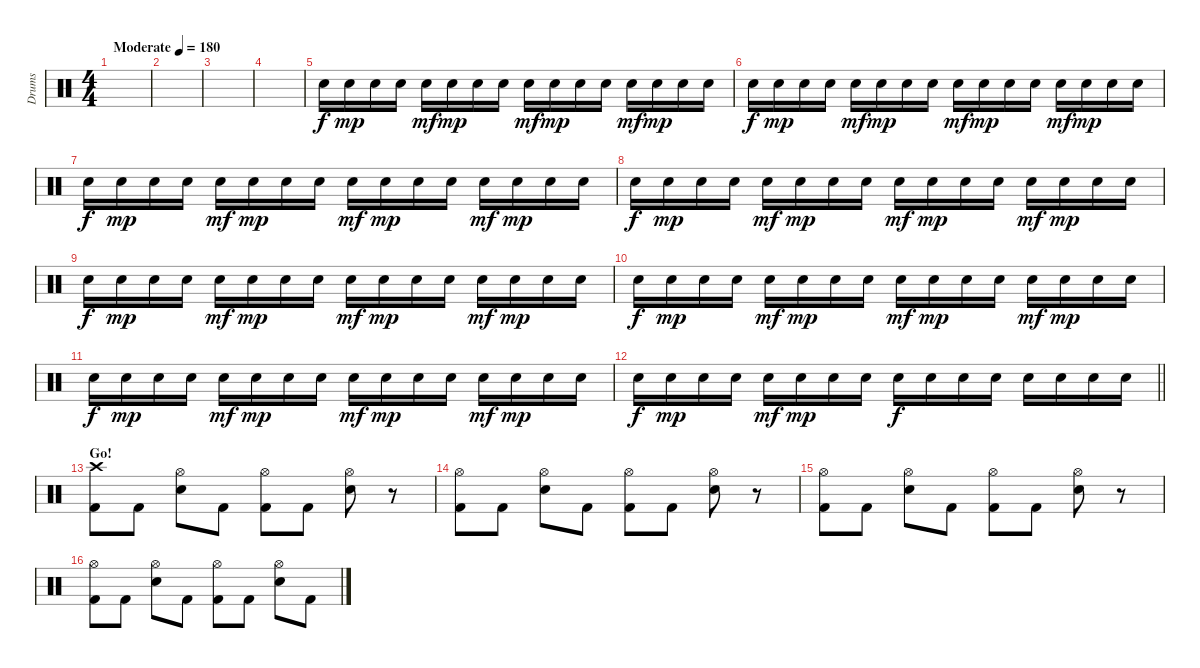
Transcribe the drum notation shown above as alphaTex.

\track ("Drums" "Drums") {instrument percussion}
\staff {score}
\articulation defaults
\ts (4 4)
\tempo (180 "Moderate")
\clef neutral
\ks c
|
|
|
|
"Electric Snare (hit)".16{volume 13} "Electric Snare (hit)".16{dy mp} "Electric Snare (hit)".16 "Electric Snare (hit)".16 "Electric Snare (hit)".16{dy mf} "Electric Snare (hit)".16{dy mp} "Electric Snare (hit)".16 "Electric Snare (hit)".16 "Electric Snare (hit)".16{dy mf} "Electric Snare (hit)".16{dy mp} "Electric Snare (hit)".16 "Electric Snare (hit)".16 "Electric Snare (hit)".16{dy mf} "Electric Snare (hit)".16{dy mp} "Electric Snare (hit)".16 "Electric Snare (hit)".16 |
"Electric Snare (hit)".16{dy f} "Electric Snare (hit)".16{dy mp} "Electric Snare (hit)".16 "Electric Snare (hit)".16 "Electric Snare (hit)".16{dy mf} "Electric Snare (hit)".16{dy mp} "Electric Snare (hit)".16 "Electric Snare (hit)".16 "Electric Snare (hit)".16{dy mf} "Electric Snare (hit)".16{dy mp} "Electric Snare (hit)".16 "Electric Snare (hit)".16 "Electric Snare (hit)".16{dy mf} "Electric Snare (hit)".16{dy mp} "Electric Snare (hit)".16 "Electric Snare (hit)".16 |
"Electric Snare (hit)".16{dy f} "Electric Snare (hit)".16{dy mp} "Electric Snare (hit)".16 "Electric Snare (hit)".16 "Electric Snare (hit)".16{dy mf} "Electric Snare (hit)".16{dy mp} "Electric Snare (hit)".16 "Electric Snare (hit)".16 "Electric Snare (hit)".16{dy mf} "Electric Snare (hit)".16{dy mp} "Electric Snare (hit)".16 "Electric Snare (hit)".16 "Electric Snare (hit)".16{dy mf} "Electric Snare (hit)".16{dy mp} "Electric Snare (hit)".16 "Electric Snare (hit)".16 |
"Electric Snare (hit)".16{dy f} "Electric Snare (hit)".16{dy mp} "Electric Snare (hit)".16 "Electric Snare (hit)".16 "Electric Snare (hit)".16{dy mf} "Electric Snare (hit)".16{dy mp} "Electric Snare (hit)".16 "Electric Snare (hit)".16 "Electric Snare (hit)".16{dy mf} "Electric Snare (hit)".16{dy mp} "Electric Snare (hit)".16 "Electric Snare (hit)".16 "Electric Snare (hit)".16{dy mf} "Electric Snare (hit)".16{dy mp} "Electric Snare (hit)".16 "Electric Snare (hit)".16 |
"Electric Snare (hit)".16{dy f volume 16} "Electric Snare (hit)".16{dy mp} "Electric Snare (hit)".16 "Electric Snare (hit)".16 "Electric Snare (hit)".16{dy mf} "Electric Snare (hit)".16{dy mp} "Electric Snare (hit)".16 "Electric Snare (hit)".16 "Electric Snare (hit)".16{dy mf} "Electric Snare (hit)".16{dy mp} "Electric Snare (hit)".16 "Electric Snare (hit)".16 "Electric Snare (hit)".16{dy mf} "Electric Snare (hit)".16{dy mp} "Electric Snare (hit)".16 "Electric Snare (hit)".16 |
"Electric Snare (hit)".16{dy f} "Electric Snare (hit)".16{dy mp} "Electric Snare (hit)".16 "Electric Snare (hit)".16 "Electric Snare (hit)".16{dy mf} "Electric Snare (hit)".16{dy mp} "Electric Snare (hit)".16 "Electric Snare (hit)".16 "Electric Snare (hit)".16{dy mf} "Electric Snare (hit)".16{dy mp} "Electric Snare (hit)".16 "Electric Snare (hit)".16 "Electric Snare (hit)".16{dy mf} "Electric Snare (hit)".16{dy mp} "Electric Snare (hit)".16 "Electric Snare (hit)".16 |
"Electric Snare (hit)".16{dy f} "Electric Snare (hit)".16{dy mp} "Electric Snare (hit)".16 "Electric Snare (hit)".16 "Electric Snare (hit)".16{dy mf} "Electric Snare (hit)".16{dy mp} "Electric Snare (hit)".16 "Electric Snare (hit)".16 "Electric Snare (hit)".16{dy mf} "Electric Snare (hit)".16{dy mp} "Electric Snare (hit)".16 "Electric Snare (hit)".16 "Electric Snare (hit)".16{dy mf} "Electric Snare (hit)".16{dy mp} "Electric Snare (hit)".16 "Electric Snare (hit)".16 |
\barLineRight lightlight "Electric Snare (hit)".16{dy f} "Electric Snare (hit)".16{dy mp} "Electric Snare (hit)".16 "Electric Snare (hit)".16 "Electric Snare (hit)".16{dy mf} "Electric Snare (hit)".16{dy mp} "Electric Snare (hit)".16 "Electric Snare (hit)".16 "Electric Snare (hit)".16{dy f} "Electric Snare (hit)".16 "Electric Snare (hit)".16 "Electric Snare (hit)".16 "Electric Snare (hit)".16 "Electric Snare (hit)".16 "Electric Snare (hit)".16 "Electric Snare (hit)".16
|
\section ("" "Go!")
("Kick (hit) 2" "Crash high (hit)").8 "Kick (hit) 2".8 ("Electric Snare (hit)" "Hi-Hat (open)").8 "Kick (hit) 2".8 ("Kick (hit) 2" "Hi-Hat (open)").8 "Kick (hit) 2".8 ("Electric Snare (hit)" "Hi-Hat (open)").8 r.8 |
("Kick (hit) 2" "Hi-Hat (open)").8 "Kick (hit) 2".8 ("Electric Snare (hit)" "Hi-Hat (open)").8 "Kick (hit) 2".8 ("Kick (hit) 2" "Hi-Hat (open)").8 "Kick (hit) 2".8 ("Electric Snare (hit)" "Hi-Hat (open)").8 r.8 |
("Kick (hit) 2" "Hi-Hat (open)").8 "Kick (hit) 2".8 ("Electric Snare (hit)" "Hi-Hat (open)").8 "Kick (hit) 2".8 ("Kick (hit) 2" "Hi-Hat (open)").8 "Kick (hit) 2".8 ("Electric Snare (hit)" "Hi-Hat (open)").8 r.8 |
("Kick (hit) 2" "Hi-Hat (open)").8 "Kick (hit) 2".8 ("Electric Snare (hit)" "Hi-Hat (open)").8 "Kick (hit) 2".8 ("Kick (hit) 2" "Hi-Hat (open)").8 "Kick (hit) 2".8 ("Electric Snare (hit)" "Hi-Hat (open)").8 "Kick (hit) 2".8
